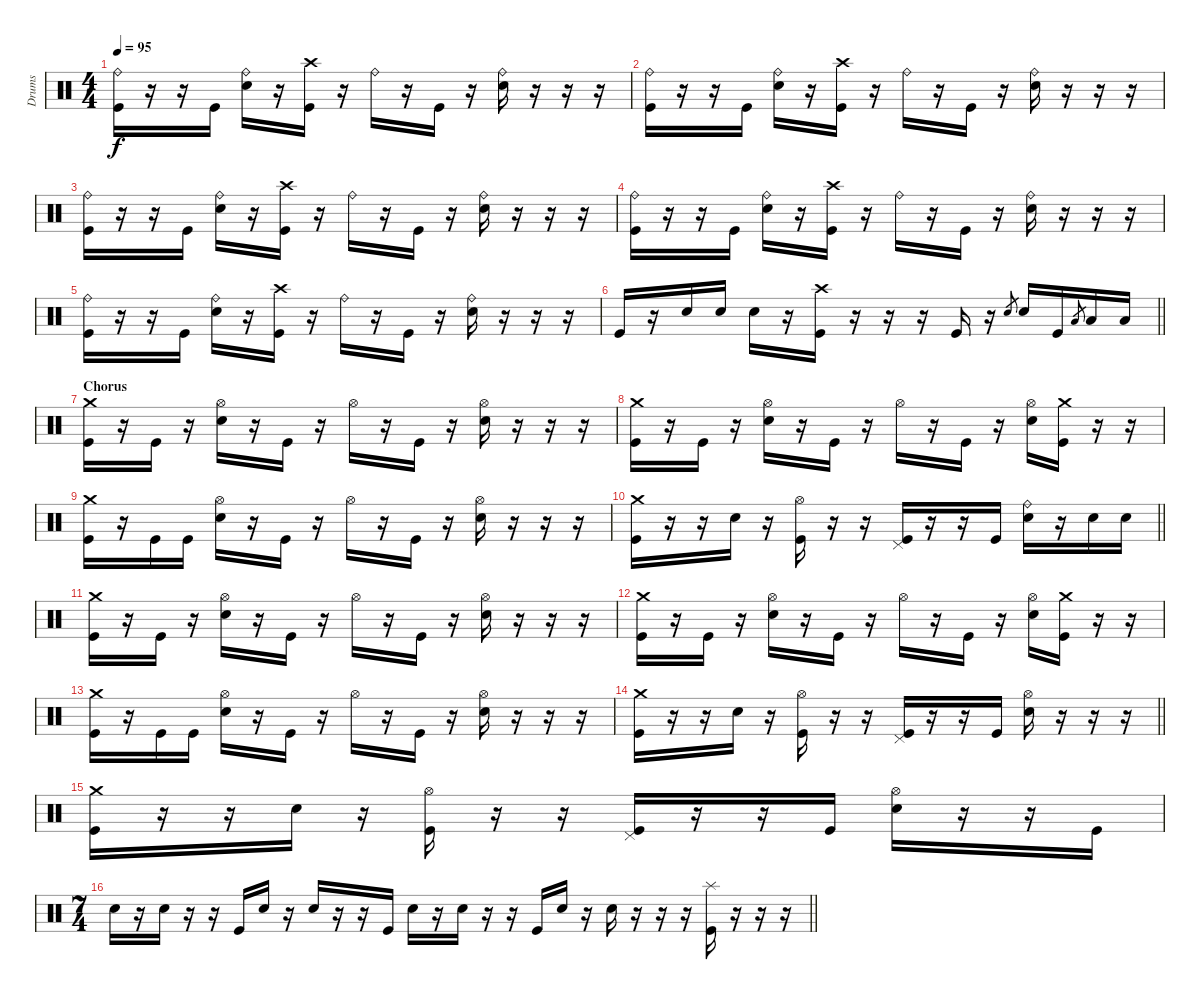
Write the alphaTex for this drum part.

\track ("Drums" "Drums") {instrument percussion}
\staff {score}
\articulation defaults
\ts (4 4)
\tempo 95
\clef neutral
\ks c
("Ride (bell)" "Kick (hit)").16{dy f} r.16 r.16 "Kick (hit)".16 ("Ride (bell)" "Electric Snare (hit)").16 r.16 ("Crash high (hit)" "Kick (hit)").16 r.16 "Ride (bell)".16 r.16 "Kick (hit)".16 r.16 ("Ride (bell)" "Electric Snare (hit)").16 r.16 r.16 r.16 |
("Ride (bell)" "Kick (hit)").16 r.16 r.16 "Kick (hit)".16 ("Ride (bell)" "Electric Snare (hit)").16 r.16 ("Crash high (hit)" "Kick (hit)").16 r.16 "Ride (bell)".16 r.16 "Kick (hit)".16 r.16 ("Ride (bell)" "Electric Snare (hit)").16 r.16 r.16 r.16 |
("Ride (bell)" "Kick (hit)").16 r.16 r.16 "Kick (hit)".16 ("Ride (bell)" "Electric Snare (hit)").16 r.16 ("Crash high (hit)" "Kick (hit)").16 r.16 "Ride (bell)".16 r.16 "Kick (hit)".16 r.16 ("Ride (bell)" "Electric Snare (hit)").16 r.16 r.16 r.16 |
("Ride (bell)" "Kick (hit)").16 r.16 r.16 "Kick (hit)".16 ("Ride (bell)" "Electric Snare (hit)").16 r.16 ("Crash high (hit)" "Kick (hit)").16 r.16 "Ride (bell)".16 r.16 "Kick (hit)".16 r.16 ("Ride (bell)" "Electric Snare (hit)").16 r.16 r.16 r.16 |
("Ride (bell)" "Kick (hit)").16 r.16 r.16 "Kick (hit)".16 ("Ride (bell)" "Electric Snare (hit)").16 r.16 ("Crash high (hit)" "Kick (hit)").16 r.16 "Ride (bell)".16 r.16 "Kick (hit)".16 r.16 ("Ride (bell)" "Electric Snare (hit)").16 r.16 r.16 r.16 |
\barLineRight lightlight "Kick (hit)".16
r.16 "Electric Snare (hit)".16 "Electric Snare (hit)".16 "Electric Snare (hit)".16 r.16 ("Crash high (hit)" "Kick (hit)").16 r.16 r.16 r.16 "Kick (hit)".16 r.16 "Electric Snare (hit)".8{gr} "Electric Snare (hit)".16 "Kick (hit)".16 "Low Floor Tom (hit)".8{gr} "Low Floor Tom (hit)".16 "Low Floor Tom (hit)".16 |
\section ("" "Chorus")
("Crash medium (hit)" "Kick (hit)").16 r.16 "Kick (hit)".16 r.16 ("Hi-Hat (open)" "Electric Snare (hit)").16 r.16 "Kick (hit)".16 r.16 "Hi-Hat (open)".16 r.16 "Kick (hit)".16 r.16 ("Hi-Hat (open)" "Electric Snare (hit)").16 r.16 r.16 r.16 |
("Crash medium (hit)" "Kick (hit)").16 r.16 "Kick (hit)".16 r.16 ("Hi-Hat (open)" "Electric Snare (hit)").16 r.16 "Kick (hit)".16 r.16 "Hi-Hat (open)".16 r.16 "Kick (hit)".16 r.16 ("Hi-Hat (open)" "Electric Snare (hit)").16 ("Crash medium (hit)" "Kick (hit)").16 r.16 r.16 |
("Crash medium (hit)" "Kick (hit)").16 r.16 "Kick (hit)".16 "Kick (hit)".16 ("Hi-Hat (open)" "Electric Snare (hit)").16 r.16 "Kick (hit)".16 r.16 "Hi-Hat (open)".16 r.16 "Kick (hit)".16 r.16 ("Hi-Hat (open)" "Electric Snare (hit)").16 r.16 r.16 r.16 |
\barLineRight lightlight
("Crash medium (hit)" "Kick (hit)").16 r.16 r.16 "Electric Snare (hit)".16 r.16 ("Hi-Hat (open)" "Kick (hit)").16 r.16 r.16 ("Pedal Hi-Hat (hit)" "Kick (hit)").16 r.16 r.16 "Kick (hit)".16 ("Ride (bell)" "Electric Snare (hit)").16 r.16 "Electric Snare (hit)".16 "Electric Snare (hit)".16 |
("Crash medium (hit)" "Kick (hit)").16 r.16 "Kick (hit)".16 r.16 ("Hi-Hat (open)" "Electric Snare (hit)").16 r.16 "Kick (hit)".16 r.16 "Hi-Hat (open)".16 r.16 "Kick (hit)".16 r.16 ("Hi-Hat (open)" "Electric Snare (hit)").16 r.16 r.16 r.16 |
("Crash medium (hit)" "Kick (hit)").16 r.16 "Kick (hit)".16 r.16 ("Hi-Hat (open)" "Electric Snare (hit)").16 r.16 "Kick (hit)".16 r.16 "Hi-Hat (open)".16 r.16 "Kick (hit)".16 r.16 ("Hi-Hat (open)" "Electric Snare (hit)").16 ("Crash medium (hit)" "Kick (hit)").16 r.16 r.16 |
("Crash medium (hit)" "Kick (hit)").16 r.16 "Kick (hit)".16 "Kick (hit)".16 ("Hi-Hat (open)" "Electric Snare (hit)").16 r.16 "Kick (hit)".16 r.16 "Hi-Hat (open)".16 r.16 "Kick (hit)".16 r.16 ("Hi-Hat (open)" "Electric Snare (hit)").16 r.16 r.16 r.16 |
\barLineRight lightlight
("Crash medium (hit)" "Kick (hit)").16 r.16 r.16 "Electric Snare (hit)".16 r.16 ("Hi-Hat (open)" "Kick (hit)").16 r.16 r.16 ("Pedal Hi-Hat (hit)" "Kick (hit)").16 r.16 r.16 "Kick (hit)".16 ("Hi-Hat (open)" "Electric Snare (hit)").16 r.16 r.16 r.16 |
("Crash medium (hit)" "Kick (hit)").16 r.16 r.16 "Electric Snare (hit)".16 r.16 ("Hi-Hat (open)" "Kick (hit)").16 r.16 r.16 ("Pedal Hi-Hat (hit)" "Kick (hit)").16 r.16 r.16 "Kick (hit)".16 ("Hi-Hat (open)" "Electric Snare (hit)").16 r.16 r.16 "Kick (hit)".16 |
\ts (7 4)
\barLineRight lightlight "Electric Snare (hit)".16
r.16 "Electric Snare (hit)".16 r.16 r.16 "Kick (hit)".16 "Electric Snare (hit)".16 r.16 "Electric Snare (hit)".16 r.16 r.16 "Kick (hit)".16 "Electric Snare (hit)".16 r.16 "Electric Snare (hit)".16 r.16 r.16 "Kick (hit)".16 "Electric Snare (hit)".16 r.16 "Electric Snare (hit)".16 r.16 r.16 r.16 ("Splash (hit)" "Kick (hit)").16 r.16 r.16 r.16
